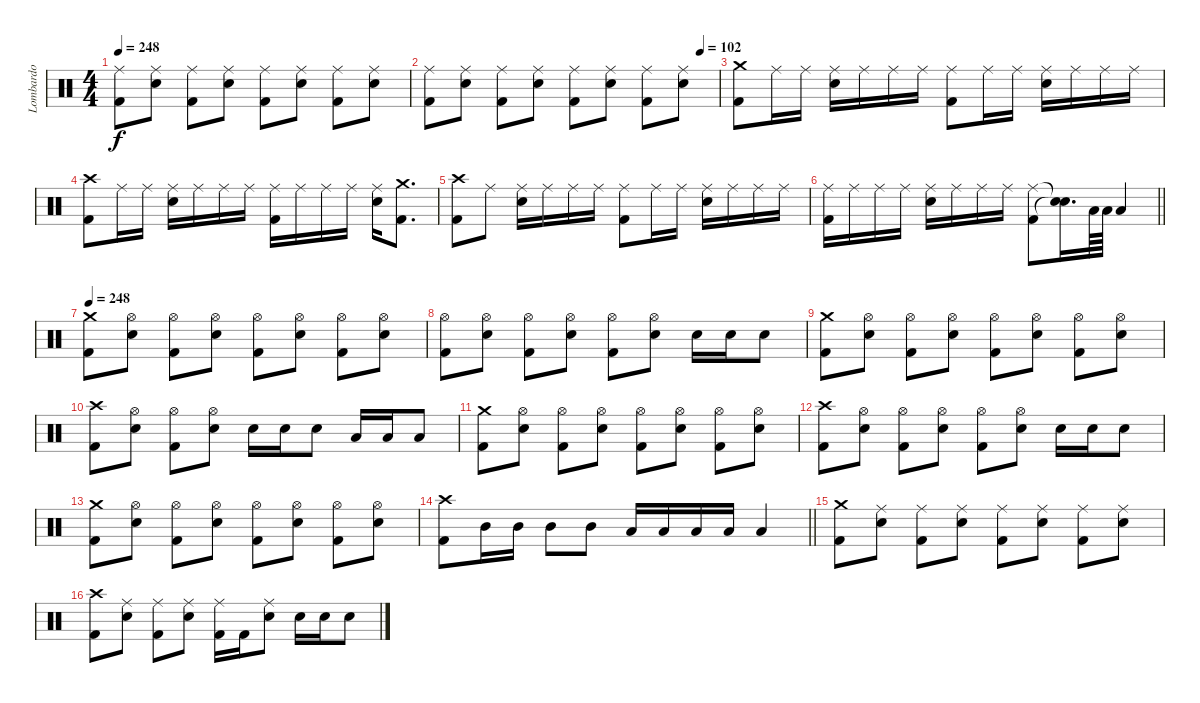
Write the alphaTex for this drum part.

\track ("Lombardo" "Lombardo") {instrument percussion}
\staff {score}
\articulation defaults
\ts (4 4)
\tempo 248
\clef neutral
\ks c
("Ride (middle)" "Kick (hit) 2").8{dy f} ("Ride (middle)" "Snare (hit) 2").8 ("Ride (middle)" "Kick (hit) 2").8 ("Ride (middle)" "Snare (hit) 2").8 ("Ride (middle)" "Kick (hit) 2").8 ("Ride (middle)" "Snare (hit) 2").8 ("Ride (middle)" "Kick (hit) 2").8 ("Ride (middle)" "Snare (hit) 2").8 |
\tempo (102 0.9375)
("Ride (middle)" "Kick (hit) 2").8 ("Ride (middle)" "Snare (hit) 2").8 ("Ride (middle)" "Kick (hit) 2").8 ("Ride (middle)" "Snare (hit) 2").8 ("Ride (middle)" "Kick (hit) 2").8 ("Ride (middle)" "Snare (hit) 2").8 ("Ride (middle)" "Kick (hit) 2").8 ("Ride (middle)" "Snare (hit) 2").8 |
("Crash medium (hit)" "Kick (hit) 2").8 "Ride (middle)".16 "Ride (middle)".16 ("Ride (middle)" "Snare (hit) 2").16 "Ride (middle)".16 "Ride (middle)".16 "Ride (middle)".16 ("Ride (middle)" "Kick (hit) 2").8 "Ride (middle)".16 "Ride (middle)".16 ("Ride (middle)" "Snare (hit) 2").16 "Ride (middle)".16 "Ride (middle)".16 "Ride (middle)".16 |
("Crash high (hit)" "Kick (hit) 2").8 "Ride (middle)".16 "Ride (middle)".16 ("Ride (middle)" "Snare (hit) 2").16 "Ride (middle)".16 "Ride (middle)".16 "Ride (middle)".16 ("Ride (middle)" "Kick (hit) 2").16 "Ride (middle)".16 "Ride (middle)".16 "Ride (middle)".16 ("Ride (middle)" "Snare (hit) 2").16 ("Crash medium (hit)" "Kick (hit) 2").8{d} |
("Crash high (hit)" "Kick (hit) 2").8 "Ride (middle)".8 ("Ride (middle)" "Snare (hit) 2").16 "Ride (middle)".16 "Ride (middle)".16 "Ride (middle)".16 ("Ride (middle)" "Kick (hit) 2").8 "Ride (middle)".16 "Ride (middle)".16 ("Ride (middle)" "Snare (hit) 2").16 "Ride (middle)".16 "Ride (middle)".16 "Ride (middle)".16 |
\barLineRight lightlight
("Ride (middle)" "Kick (hit) 2").16 "Ride (middle)".16 "Ride (middle)".16 "Ride (middle)".16 ("Ride (middle)" "Snare (hit) 2").16 "Ride (middle)".16 "Ride (middle)".16 "Ride (middle)".16 ("Ride (middle)" "Kick (hit) 2").8 ("Snare (hit)"{t} "Snare (hit)"{t}).16{d} "Low Floor Tom (hit)".64 "Low Floor Tom (hit)".64 "Low Floor Tom (hit)".4 |
\tempo 248
("Crash medium (hit)" "Kick (hit) 2").8 ("Hi-Hat (open)" "Snare (hit) 2").8 ("Hi-Hat (open)" "Kick (hit) 2").8 ("Hi-Hat (open)" "Snare (hit) 2").8 ("Hi-Hat (open)" "Kick (hit) 2").8 ("Hi-Hat (open)" "Snare (hit) 2").8 ("Hi-Hat (open)" "Kick (hit) 2").8 ("Hi-Hat (open)" "Snare (hit) 2").8 |
("Hi-Hat (open)" "Kick (hit) 2").8 ("Hi-Hat (open)" "Snare (hit) 2").8 ("Hi-Hat (open)" "Kick (hit) 2").8 ("Hi-Hat (open)" "Snare (hit) 2").8 ("Hi-Hat (open)" "Kick (hit) 2").8 ("Hi-Hat (open)" "Snare (hit) 2").8 "Snare (hit) 2".16 "Snare (hit) 2".16 "Snare (hit) 2".8 |
("Crash medium (hit)" "Kick (hit) 2").8 ("Hi-Hat (open)" "Snare (hit) 2").8 ("Hi-Hat (open)" "Kick (hit) 2").8 ("Hi-Hat (open)" "Snare (hit) 2").8 ("Hi-Hat (open)" "Kick (hit) 2").8 ("Hi-Hat (open)" "Snare (hit) 2").8 ("Hi-Hat (open)" "Kick (hit) 2").8 ("Hi-Hat (open)" "Snare (hit) 2").8 |
("Crash high (hit)" "Kick (hit) 2").8 ("Hi-Hat (open)" "Snare (hit) 2").8 ("Hi-Hat (open)" "Kick (hit) 2").8 ("Hi-Hat (open)" "Snare (hit) 2").8 "Snare (hit) 2".16 "Snare (hit) 2".16 "Snare (hit) 2".8 "Low Tom (hit)".16 "Low Tom (hit)".16 "Low Tom (hit)".8 |
("Crash medium (hit)" "Kick (hit) 2").8 ("Hi-Hat (open)" "Snare (hit) 2").8 ("Hi-Hat (open)" "Kick (hit) 2").8 ("Hi-Hat (open)" "Snare (hit) 2").8 ("Hi-Hat (open)" "Kick (hit) 2").8 ("Hi-Hat (open)" "Snare (hit) 2").8 ("Hi-Hat (open)" "Kick (hit) 2").8 ("Hi-Hat (open)" "Snare (hit) 2").8 |
("Crash high (hit)" "Kick (hit) 2").8 ("Hi-Hat (open)" "Snare (hit) 2").8 ("Hi-Hat (open)" "Kick (hit) 2").8 ("Hi-Hat (open)" "Snare (hit) 2").8 ("Hi-Hat (open)" "Kick (hit) 2").8 ("Hi-Hat (open)" "Snare (hit) 2").8 "Snare (hit) 2".16 "Snare (hit) 2".16 "Snare (hit) 2".8 |
("Crash medium (hit)" "Kick (hit) 2").8 ("Hi-Hat (open)" "Snare (hit) 2").8 ("Hi-Hat (open)" "Kick (hit) 2").8 ("Hi-Hat (open)" "Snare (hit) 2").8 ("Hi-Hat (open)" "Kick (hit) 2").8 ("Hi-Hat (open)" "Snare (hit) 2").8 ("Hi-Hat (open)" "Kick (hit) 2").8 ("Hi-Hat (open)" "Snare (hit) 2").8 |
\barLineRight lightlight
("Crash high (hit)" "Kick (hit) 2").8 "Mid Tom (hit)".16 "Mid Tom (hit)".16 "Mid Tom (hit)".8 "Mid Tom (hit)".8 "Low Tom (hit)".16 "Low Tom (hit)".16 "Low Tom (hit)".16 "Low Tom (hit)".16 "Low Tom (hit)".4 |
("Crash medium (hit)" "Kick (hit) 2").8 ("Ride (middle)" "Snare (hit) 2").8 ("Ride (middle)" "Kick (hit) 2").8 ("Ride (middle)" "Snare (hit) 2").8 ("Ride (middle)" "Kick (hit) 2").8 ("Ride (middle)" "Snare (hit) 2").8 ("Ride (middle)" "Kick (hit) 2").8 ("Ride (middle)" "Snare (hit) 2").8 |
("Crash high (hit)" "Kick (hit) 2").8 ("Ride (middle)" "Snare (hit) 2").8 ("Ride (middle)" "Kick (hit) 2").8 ("Ride (middle)" "Snare (hit) 2").8 ("Ride (middle)" "Kick (hit) 2").16 "Kick (hit) 2".16 ("Ride (middle)" "Snare (hit) 2").8 "Snare (hit) 2".16 "Snare (hit) 2".16 "Snare (hit) 2".8
